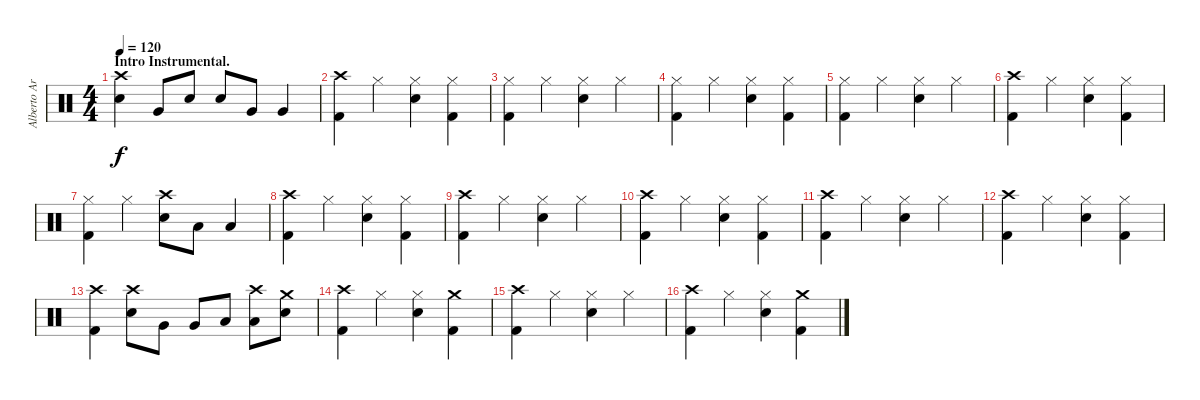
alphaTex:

\track ("Alberto Ardines (Batería)" "Alberto Ar") {instrument percussion}
\staff {score}
\articulation defaults
\ts (4 4)
\section ("" "Intro Instrumental.")
\tempo 120
\clef neutral
\ks c
("Electric Snare (hit)" "Crash high (hit)").4{dy f} "Very Low Tom (hit)".8 "Electric Snare (hit)".8 "Electric Snare (hit)".8 "Very Low Tom (hit)".8 "Very Low Tom (hit)".4 |
("Crash high (hit)" "Kick (hit) 2").4 "Hi-Hat (closed)".4 ("Hi-Hat (closed)" "Electric Snare (hit)").4 ("Hi-Hat (closed)" "Kick (hit) 2").4 |
("Hi-Hat (closed)" "Kick (hit) 2").4 "Hi-Hat (closed)".4 ("Hi-Hat (closed)" "Electric Snare (hit)").4 "Hi-Hat (closed)".4 |
("Hi-Hat (closed)" "Kick (hit) 2").4 "Hi-Hat (closed)".4 ("Hi-Hat (closed)" "Electric Snare (hit)").4 ("Hi-Hat (closed)" "Kick (hit) 2").4 |
("Hi-Hat (closed)" "Kick (hit) 2").4 "Hi-Hat (closed)".4 ("Hi-Hat (closed)" "Electric Snare (hit)").4 "Hi-Hat (closed)".4 |
("Crash high (hit)" "Kick (hit) 2").4 "Hi-Hat (closed)".4 ("Hi-Hat (closed)" "Electric Snare (hit)").4 ("Hi-Hat (closed)" "Kick (hit) 2").4 |
("Hi-Hat (closed)" "Kick (hit) 2").4 "Hi-Hat (closed)".4 ("Crash high (hit)" "Electric Snare (hit)").8 "Low Floor Tom (hit)".8 "Low Floor Tom (hit)".4 |
("Crash high (hit)" "Kick (hit) 2").4 "Hi-Hat (closed)".4 ("Hi-Hat (closed)" "Electric Snare (hit)").4 ("Hi-Hat (closed)" "Kick (hit) 2").4 |
("Crash high (hit)" "Kick (hit) 2").4 "Hi-Hat (closed)".4 ("Hi-Hat (closed)" "Electric Snare (hit)").4 "Hi-Hat (closed)".4 |
("Crash high (hit)" "Kick (hit) 2").4 "Hi-Hat (closed)".4 ("Hi-Hat (closed)" "Electric Snare (hit)").4 ("Hi-Hat (closed)" "Kick (hit) 2").4 |
("Crash high (hit)" "Kick (hit) 2").4 "Hi-Hat (closed)".4 ("Hi-Hat (closed)" "Electric Snare (hit)").4 "Hi-Hat (closed)".4 |
("Crash high (hit)" "Kick (hit) 2").4 "Hi-Hat (closed)".4 ("Hi-Hat (closed)" "Electric Snare (hit)").4 ("Hi-Hat (closed)" "Kick (hit) 2").4 |
("Crash high (hit)" "Kick (hit) 2").4 ("Crash high (hit)" "Electric Snare (hit)").8 "Very Low Tom (hit)".8 "Very Low Tom (hit)".8 "Low Floor Tom (hit)".8 ("Low Floor Tom (hit)" "Crash high (hit)").8 ("Crash medium (hit)" "Electric Snare (hit)").8 |
("Crash high (hit)" "Kick (hit) 2").4 "Hi-Hat (closed)".4 ("Hi-Hat (closed)" "Electric Snare (hit)").4 ("Crash medium (hit)" "Kick (hit) 2").4 |
("Crash high (hit)" "Kick (hit) 2").4 "Hi-Hat (closed)".4 ("Hi-Hat (closed)" "Electric Snare (hit)").4 "Hi-Hat (closed)".4 |
("Crash high (hit)" "Kick (hit) 2").4 "Hi-Hat (closed)".4 ("Hi-Hat (closed)" "Electric Snare (hit)").4 ("Crash medium (hit)" "Kick (hit) 2").4
